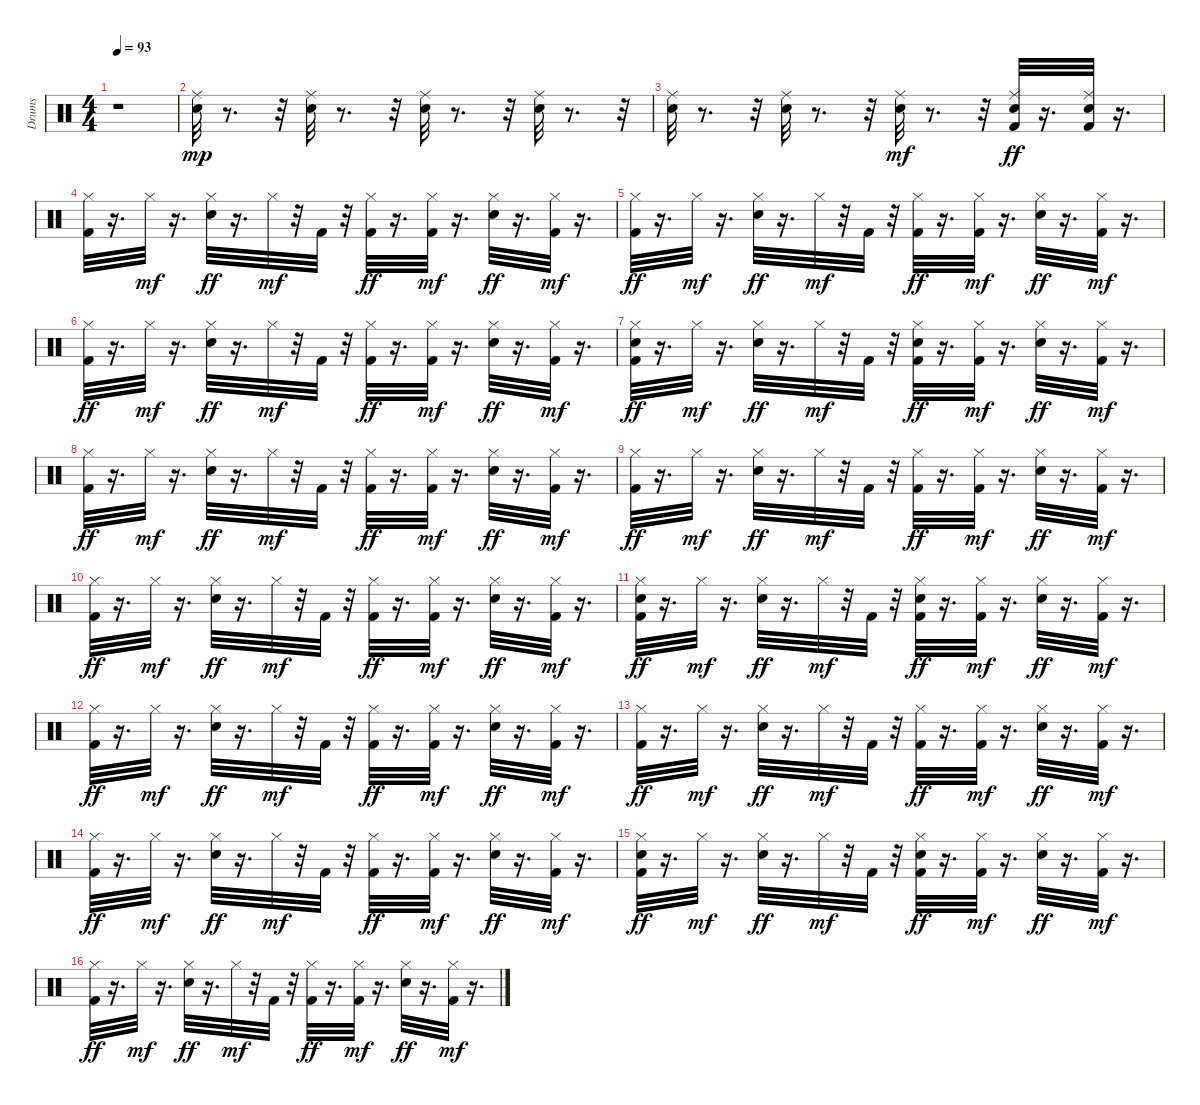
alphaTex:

\track ("Drums" "Drums") {instrument percussion}
\staff {score}
\articulation defaults
\ts (4 4)
\tempo 93
\clef neutral
\ks c
r.1{dy ff} |
("Snare (hit) 2" "Ride (middle)").32{dy mp} r.8{d} r.32 ("Snare (hit) 2" "Ride (middle)").32 r.8{d} r.32 ("Snare (hit) 2" "Ride (middle)").32 r.8{d} r.32 ("Snare (hit) 2" "Ride (middle)").32 r.8{d} r.32 |
("Snare (hit) 2" "Ride (middle)").32 r.8{d} r.32 ("Snare (hit) 2" "Ride (middle)").32 r.8{d} r.32 ("Snare (hit) 2" "Ride (middle)").32{dy mf} r.8{d} r.32 ("Kick (hit) 2" "Snare (hit) 2" "Ride (middle)").32{dy ff} r.16{d} ("Kick (hit) 2" "Snare (hit) 2" "Ride (middle)").32 r.16{d} |
("Kick (hit) 2" "Hi-Hat (closed)").32 r.16{d} "Hi-Hat (closed)".32{dy mf} r.16{d} ("Snare (hit) 2" "Hi-Hat (closed)").32{dy ff} r.16{d} "Hi-Hat (closed)".32{dy mf} r.32 "Kick (hit) 2".32 r.32 ("Kick (hit) 2" "Hi-Hat (closed)").32{dy ff} r.16{d} ("Kick (hit) 2" "Hi-Hat (closed)").32{dy mf} r.16{d} ("Snare (hit) 2" "Hi-Hat (closed)").32{dy ff} r.16{d} ("Kick (hit) 2" "Hi-Hat (closed)").32{dy mf} r.16{d} |
("Kick (hit) 2" "Hi-Hat (closed)").32{dy ff} r.16{d} "Hi-Hat (closed)".32{dy mf} r.16{d} ("Snare (hit) 2" "Hi-Hat (closed)").32{dy ff} r.16{d} "Hi-Hat (closed)".32{dy mf} r.32 "Kick (hit) 2".32 r.32 ("Kick (hit) 2" "Hi-Hat (closed)").32{dy ff} r.16{d} ("Kick (hit) 2" "Hi-Hat (closed)").32{dy mf} r.16{d} ("Snare (hit) 2" "Hi-Hat (closed)").32{dy ff} r.16{d} ("Kick (hit) 2" "Hi-Hat (closed)").32{dy mf} r.16{d} |
("Kick (hit) 2" "Hi-Hat (closed)").32{dy ff} r.16{d} "Hi-Hat (closed)".32{dy mf} r.16{d} ("Snare (hit) 2" "Hi-Hat (closed)").32{dy ff} r.16{d} "Hi-Hat (closed)".32{dy mf} r.32 "Kick (hit) 2".32 r.32 ("Kick (hit) 2" "Hi-Hat (closed)").32{dy ff} r.16{d} ("Kick (hit) 2" "Hi-Hat (closed)").32{dy mf} r.16{d} ("Snare (hit) 2" "Hi-Hat (closed)").32{dy ff} r.16{d} ("Kick (hit) 2" "Hi-Hat (closed)").32{dy mf} r.16{d} |
("Kick (hit) 2" "Snare (hit) 2" "Hi-Hat (closed)").32{dy ff} r.16{d} "Hi-Hat (closed)".32{dy mf} r.16{d} ("Snare (hit) 2" "Hi-Hat (closed)").32{dy ff} r.16{d} "Hi-Hat (closed)".32{dy mf} r.32 "Kick (hit) 2".32 r.32 ("Kick (hit) 2" "Snare (hit) 2" "Hi-Hat (closed)").32{dy ff} r.16{d} ("Kick (hit) 2" "Hi-Hat (closed)").32{dy mf} r.16{d} ("Snare (hit) 2" "Hi-Hat (closed)").32{dy ff} r.16{d} ("Kick (hit) 2" "Hi-Hat (closed)").32{dy mf} r.16{d} |
("Kick (hit) 2" "Hi-Hat (closed)").32{dy ff} r.16{d} "Hi-Hat (closed)".32{dy mf} r.16{d} ("Snare (hit) 2" "Hi-Hat (closed)").32{dy ff} r.16{d} "Hi-Hat (closed)".32{dy mf} r.32 "Kick (hit) 2".32 r.32 ("Kick (hit) 2" "Hi-Hat (closed)").32{dy ff} r.16{d} ("Kick (hit) 2" "Hi-Hat (closed)").32{dy mf} r.16{d} ("Snare (hit) 2" "Hi-Hat (closed)").32{dy ff} r.16{d} ("Kick (hit) 2" "Hi-Hat (closed)").32{dy mf} r.16{d} |
("Kick (hit) 2" "Hi-Hat (closed)").32{dy ff} r.16{d} "Hi-Hat (closed)".32{dy mf} r.16{d} ("Snare (hit) 2" "Hi-Hat (closed)").32{dy ff} r.16{d} "Hi-Hat (closed)".32{dy mf} r.32 "Kick (hit) 2".32 r.32 ("Kick (hit) 2" "Hi-Hat (closed)").32{dy ff} r.16{d} ("Kick (hit) 2" "Hi-Hat (closed)").32{dy mf} r.16{d} ("Snare (hit) 2" "Hi-Hat (closed)").32{dy ff} r.16{d} ("Kick (hit) 2" "Hi-Hat (closed)").32{dy mf} r.16{d} |
("Kick (hit) 2" "Hi-Hat (closed)").32{dy ff} r.16{d} "Hi-Hat (closed)".32{dy mf} r.16{d} ("Snare (hit) 2" "Hi-Hat (closed)").32{dy ff} r.16{d} "Hi-Hat (closed)".32{dy mf} r.32 "Kick (hit) 2".32 r.32 ("Kick (hit) 2" "Hi-Hat (closed)").32{dy ff} r.16{d} ("Kick (hit) 2" "Hi-Hat (closed)").32{dy mf} r.16{d} ("Snare (hit) 2" "Hi-Hat (closed)").32{dy ff} r.16{d} ("Kick (hit) 2" "Hi-Hat (closed)").32{dy mf} r.16{d} |
("Kick (hit) 2" "Snare (hit) 2" "Hi-Hat (closed)").32{dy ff} r.16{d} "Hi-Hat (closed)".32{dy mf} r.16{d} ("Snare (hit) 2" "Hi-Hat (closed)").32{dy ff} r.16{d} "Hi-Hat (closed)".32{dy mf} r.32 "Kick (hit) 2".32 r.32 ("Kick (hit) 2" "Snare (hit) 2" "Hi-Hat (closed)").32{dy ff} r.16{d} ("Kick (hit) 2" "Hi-Hat (closed)").32{dy mf} r.16{d} ("Snare (hit) 2" "Hi-Hat (closed)").32{dy ff} r.16{d} ("Kick (hit) 2" "Hi-Hat (closed)").32{dy mf} r.16{d} |
("Kick (hit) 2" "Hi-Hat (closed)").32{dy ff} r.16{d} "Hi-Hat (closed)".32{dy mf} r.16{d} ("Snare (hit) 2" "Hi-Hat (closed)").32{dy ff} r.16{d} "Hi-Hat (closed)".32{dy mf} r.32 "Kick (hit) 2".32 r.32 ("Kick (hit) 2" "Hi-Hat (closed)").32{dy ff} r.16{d} ("Kick (hit) 2" "Hi-Hat (closed)").32{dy mf} r.16{d} ("Snare (hit) 2" "Hi-Hat (closed)").32{dy ff} r.16{d} ("Kick (hit) 2" "Hi-Hat (closed)").32{dy mf} r.16{d} |
("Kick (hit) 2" "Hi-Hat (closed)").32{dy ff} r.16{d} "Hi-Hat (closed)".32{dy mf} r.16{d} ("Snare (hit) 2" "Hi-Hat (closed)").32{dy ff} r.16{d} "Hi-Hat (closed)".32{dy mf} r.32 "Kick (hit) 2".32 r.32 ("Kick (hit) 2" "Hi-Hat (closed)").32{dy ff} r.16{d} ("Kick (hit) 2" "Hi-Hat (closed)").32{dy mf} r.16{d} ("Snare (hit) 2" "Hi-Hat (closed)").32{dy ff} r.16{d} ("Kick (hit) 2" "Hi-Hat (closed)").32{dy mf} r.16{d} |
("Kick (hit) 2" "Hi-Hat (closed)").32{dy ff} r.16{d} "Hi-Hat (closed)".32{dy mf} r.16{d} ("Snare (hit) 2" "Hi-Hat (closed)").32{dy ff} r.16{d} "Hi-Hat (closed)".32{dy mf} r.32 "Kick (hit) 2".32 r.32 ("Kick (hit) 2" "Hi-Hat (closed)").32{dy ff} r.16{d} ("Kick (hit) 2" "Hi-Hat (closed)").32{dy mf} r.16{d} ("Snare (hit) 2" "Hi-Hat (closed)").32{dy ff} r.16{d} ("Kick (hit) 2" "Hi-Hat (closed)").32{dy mf} r.16{d} |
("Kick (hit) 2" "Snare (hit) 2" "Hi-Hat (closed)").32{dy ff} r.16{d} "Hi-Hat (closed)".32{dy mf} r.16{d} ("Snare (hit) 2" "Hi-Hat (closed)").32{dy ff} r.16{d} "Hi-Hat (closed)".32{dy mf} r.32 "Kick (hit) 2".32 r.32 ("Kick (hit) 2" "Snare (hit) 2" "Hi-Hat (closed)").32{dy ff} r.16{d} ("Kick (hit) 2" "Hi-Hat (closed)").32{dy mf} r.16{d} ("Snare (hit) 2" "Hi-Hat (closed)").32{dy ff} r.16{d} ("Kick (hit) 2" "Hi-Hat (closed)").32{dy mf} r.16{d} |
("Kick (hit) 2" "Hi-Hat (closed)").32{dy ff} r.16{d} "Hi-Hat (closed)".32{dy mf} r.16{d} ("Snare (hit) 2" "Hi-Hat (closed)").32{dy ff} r.16{d} "Hi-Hat (closed)".32{dy mf} r.32 "Kick (hit) 2".32 r.32 ("Kick (hit) 2" "Hi-Hat (closed)").32{dy ff} r.16{d} ("Kick (hit) 2" "Hi-Hat (closed)").32{dy mf} r.16{d} ("Snare (hit) 2" "Hi-Hat (closed)").32{dy ff} r.16{d} ("Kick (hit) 2" "Hi-Hat (closed)").32{dy mf} r.16{d}
